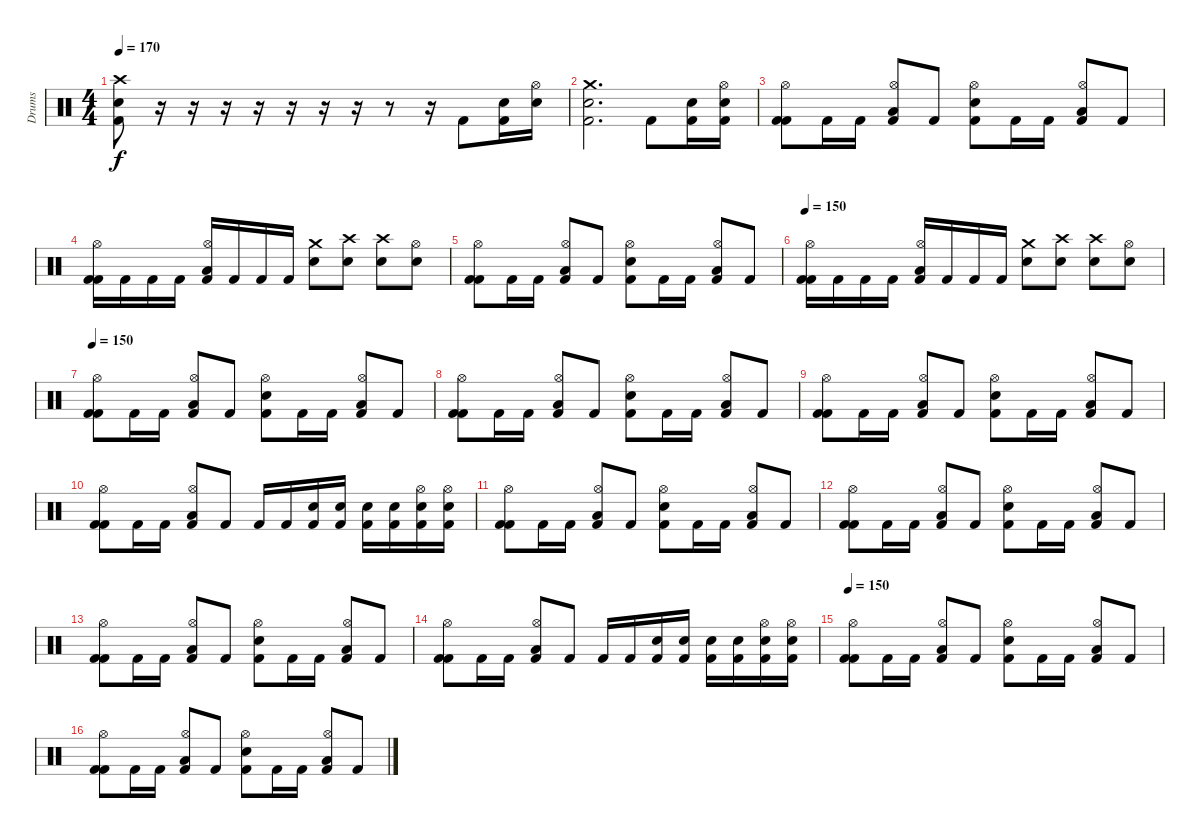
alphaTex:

\track ("Drums" "Drums") {instrument percussion}
\staff {score}
\articulation defaults
\ts (4 4)
\tempo 170
\clef neutral
\ks c
("Crash high (hit)" "Snare (hit) 2" "Kick (hit) 2").8{dy f} r.16 r.16 r.16 r.16 r.16 r.16 r.16 r.8 r.16 "Kick (hit) 2".8 ("Snare (hit) 2" "Kick (hit) 2").16 ("Hi-Hat (open)" "Snare (hit) 2").16 |
("Crash medium (hit)" "Snare (hit) 2" "Kick (hit) 2").2{d} "Kick (hit) 2".8 ("Snare (hit) 2" "Kick (hit) 2").16 ("Hi-Hat (open)" "Snare (hit) 2" "Kick (hit) 2").16 |
("Hi-Hat (open)" "Kick (hit) 2" "Kick (hit) 2").8 "Kick (hit) 2".16 "Kick (hit) 2".16 ("Hi-Hat (open)" "Low Floor Tom (hit)" "Kick (hit) 2").8 "Kick (hit) 2".8 ("Hi-Hat (open)" "Snare (hit) 2" "Kick (hit) 2").8 "Kick (hit) 2".16 "Kick (hit) 2".16 ("Hi-Hat (open)" "Low Floor Tom (hit)" "Kick (hit) 2").8 "Kick (hit) 2".8 |
("Hi-Hat (open)" "Kick (hit) 2" "Kick (hit) 2").16 "Kick (hit) 2".16 "Kick (hit) 2".16 "Kick (hit) 2".16 ("Hi-Hat (open)" "Low Floor Tom (hit)" "Kick (hit) 2").16 "Kick (hit) 2".16 "Kick (hit) 2".16 "Kick (hit) 2".16 ("Crash medium (hit)" "Snare (hit) 2").8 ("Crash high (hit)" "Snare (hit) 2").8 ("Crash high (hit)" "Snare (hit) 2").8 ("Hi-Hat (open)" "Snare (hit) 2").8 |
("Hi-Hat (open)" "Kick (hit) 2" "Kick (hit) 2").8 "Kick (hit) 2".16 "Kick (hit) 2".16 ("Hi-Hat (open)" "Low Floor Tom (hit)" "Kick (hit) 2").8 "Kick (hit) 2".8 ("Hi-Hat (open)" "Snare (hit) 2" "Kick (hit) 2").8 "Kick (hit) 2".16 "Kick (hit) 2".16 ("Hi-Hat (open)" "Low Floor Tom (hit)" "Kick (hit) 2").8 "Kick (hit) 2".8 |
\tempo 150
("Hi-Hat (open)" "Kick (hit) 2" "Kick (hit) 2").16 "Kick (hit) 2".16 "Kick (hit) 2".16 "Kick (hit) 2".16 ("Hi-Hat (open)" "Low Floor Tom (hit)" "Kick (hit) 2").16 "Kick (hit) 2".16 "Kick (hit) 2".16 "Kick (hit) 2".16 ("Crash medium (hit)" "Snare (hit) 2").8 ("Crash high (hit)" "Snare (hit) 2").8 ("Crash high (hit)" "Snare (hit) 2").8 ("Hi-Hat (open)" "Snare (hit) 2").8 |
\tempo 150
("Hi-Hat (open)" "Kick (hit) 2" "Kick (hit) 2").8{volume 12} "Kick (hit) 2".16 "Kick (hit) 2".16 ("Hi-Hat (open)" "Low Floor Tom (hit)" "Kick (hit) 2").8 "Kick (hit) 2".8 ("Hi-Hat (open)" "Snare (hit) 2" "Kick (hit) 2").8 "Kick (hit) 2".16 "Kick (hit) 2".16 ("Hi-Hat (open)" "Low Floor Tom (hit)" "Kick (hit) 2").8 "Kick (hit) 2".8 |
("Hi-Hat (open)" "Kick (hit) 2" "Kick (hit) 2").8{volume 12} "Kick (hit) 2".16 "Kick (hit) 2".16 ("Hi-Hat (open)" "Low Floor Tom (hit)" "Kick (hit) 2").8 "Kick (hit) 2".8 ("Hi-Hat (open)" "Snare (hit) 2" "Kick (hit) 2").8 "Kick (hit) 2".16 "Kick (hit) 2".16 ("Hi-Hat (open)" "Low Floor Tom (hit)" "Kick (hit) 2").8 "Kick (hit) 2".8 |
("Hi-Hat (open)" "Kick (hit) 2" "Kick (hit) 2").8 "Kick (hit) 2".16 "Kick (hit) 2".16 ("Hi-Hat (open)" "Low Floor Tom (hit)" "Kick (hit) 2").8 "Kick (hit) 2".8 ("Hi-Hat (open)" "Snare (hit) 2" "Kick (hit) 2").8 "Kick (hit) 2".16 "Kick (hit) 2".16 ("Hi-Hat (open)" "Low Floor Tom (hit)" "Kick (hit) 2").8 "Kick (hit) 2".8 |
("Hi-Hat (open)" "Kick (hit) 2" "Kick (hit) 2").8{volume 12} "Kick (hit) 2".16 "Kick (hit) 2".16 ("Hi-Hat (open)" "Low Floor Tom (hit)" "Kick (hit) 2").8 "Kick (hit) 2".8 "Kick (hit) 2".16 "Kick (hit) 2".16 ("Snare (hit) 2" "Kick (hit) 2").16 ("Snare (hit) 2" "Kick (hit) 2").16 ("Snare (hit) 2" "Kick (hit) 2").16 ("Snare (hit) 2" "Kick (hit) 2").16 ("Hi-Hat (open)" "Snare (hit) 2" "Kick (hit) 2").16 ("Hi-Hat (open)" "Snare (hit) 2" "Kick (hit) 2").16 |
("Hi-Hat (open)" "Kick (hit) 2" "Kick (hit) 2").8{volume 12} "Kick (hit) 2".16 "Kick (hit) 2".16 ("Hi-Hat (open)" "Low Floor Tom (hit)" "Kick (hit) 2").8 "Kick (hit) 2".8 ("Hi-Hat (open)" "Snare (hit) 2" "Kick (hit) 2").8 "Kick (hit) 2".16 "Kick (hit) 2".16 ("Hi-Hat (open)" "Low Floor Tom (hit)" "Kick (hit) 2").8 "Kick (hit) 2".8 |
("Hi-Hat (open)" "Kick (hit) 2" "Kick (hit) 2").8{volume 12} "Kick (hit) 2".16 "Kick (hit) 2".16 ("Hi-Hat (open)" "Low Floor Tom (hit)" "Kick (hit) 2").8 "Kick (hit) 2".8 ("Hi-Hat (open)" "Snare (hit) 2" "Kick (hit) 2").8 "Kick (hit) 2".16 "Kick (hit) 2".16 ("Hi-Hat (open)" "Low Floor Tom (hit)" "Kick (hit) 2").8 "Kick (hit) 2".8 |
("Hi-Hat (open)" "Kick (hit) 2" "Kick (hit) 2").8 "Kick (hit) 2".16 "Kick (hit) 2".16 ("Hi-Hat (open)" "Low Floor Tom (hit)" "Kick (hit) 2").8 "Kick (hit) 2".8 ("Hi-Hat (open)" "Snare (hit) 2" "Kick (hit) 2").8 "Kick (hit) 2".16 "Kick (hit) 2".16 ("Hi-Hat (open)" "Low Floor Tom (hit)" "Kick (hit) 2").8 "Kick (hit) 2".8 |
("Hi-Hat (open)" "Kick (hit) 2" "Kick (hit) 2").8{volume 12} "Kick (hit) 2".16 "Kick (hit) 2".16 ("Hi-Hat (open)" "Low Floor Tom (hit)" "Kick (hit) 2").8 "Kick (hit) 2".8 "Kick (hit) 2".16 "Kick (hit) 2".16 ("Snare (hit) 2" "Kick (hit) 2").16 ("Snare (hit) 2" "Kick (hit) 2").16 ("Snare (hit) 2" "Kick (hit) 2").16 ("Snare (hit) 2" "Kick (hit) 2").16 ("Hi-Hat (open)" "Snare (hit) 2" "Kick (hit) 2").16 ("Hi-Hat (open)" "Snare (hit) 2" "Kick (hit) 2").16 |
\tempo 150
("Hi-Hat (open)" "Kick (hit) 2" "Kick (hit) 2").8{volume 12} "Kick (hit) 2".16 "Kick (hit) 2".16 ("Hi-Hat (open)" "Low Floor Tom (hit)" "Kick (hit) 2").8 "Kick (hit) 2".8 ("Hi-Hat (open)" "Snare (hit) 2" "Kick (hit) 2").8 "Kick (hit) 2".16 "Kick (hit) 2".16 ("Hi-Hat (open)" "Low Floor Tom (hit)" "Kick (hit) 2").8 "Kick (hit) 2".8 |
("Hi-Hat (open)" "Kick (hit) 2" "Kick (hit) 2").8{volume 12} "Kick (hit) 2".16 "Kick (hit) 2".16 ("Hi-Hat (open)" "Low Floor Tom (hit)" "Kick (hit) 2").8 "Kick (hit) 2".8 ("Hi-Hat (open)" "Snare (hit) 2" "Kick (hit) 2").8 "Kick (hit) 2".16 "Kick (hit) 2".16 ("Hi-Hat (open)" "Low Floor Tom (hit)" "Kick (hit) 2").8 "Kick (hit) 2".8
